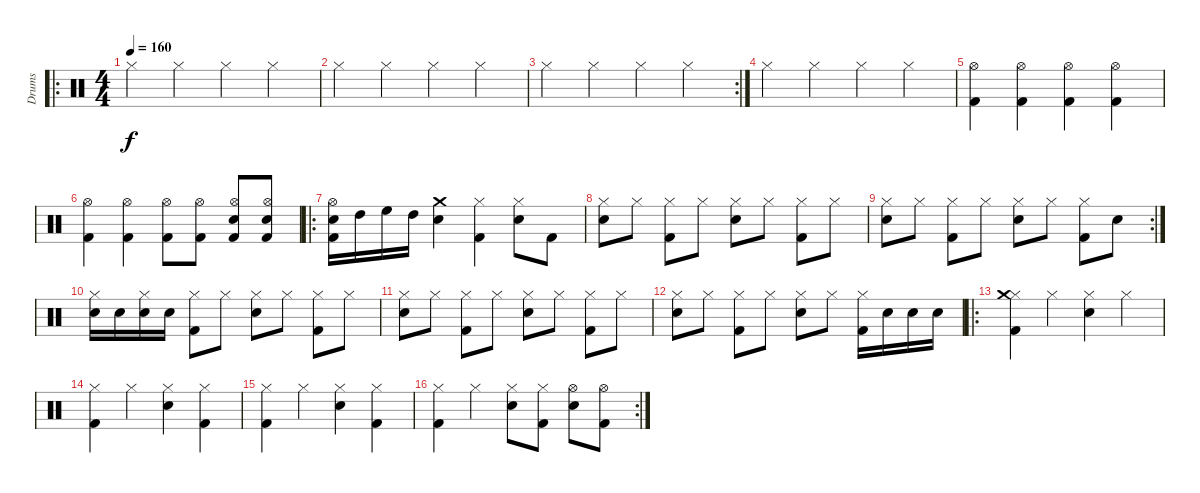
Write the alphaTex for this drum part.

\track ("Drums" "Drums") {instrument percussion}
\staff {score}
\articulation defaults
\ro
\ts (4 4)
\tempo 160
\clef neutral
\ks c "Hi-Hat (closed)".4{dy f} "Hi-Hat (closed)".4 "Hi-Hat (closed)".4 "Hi-Hat (closed)".4
|
"Hi-Hat (closed)".4 "Hi-Hat (closed)".4 "Hi-Hat (closed)".4 "Hi-Hat (closed)".4 |
\rc 2 "Hi-Hat (closed)".4 "Hi-Hat (closed)".4 "Hi-Hat (closed)".4 "Hi-Hat (closed)".4
|
"Hi-Hat (closed)".4 "Hi-Hat (closed)".4 "Hi-Hat (closed)".4 "Hi-Hat (closed)".4 |
("Kick (hit) 2" "Hi-Hat (open)").4 ("Kick (hit) 2" "Hi-Hat (open)").4 ("Kick (hit) 2" "Hi-Hat (open)").4 ("Kick (hit) 2" "Hi-Hat (open)").4 |
("Kick (hit) 2" "Hi-Hat (open)").4 ("Kick (hit) 2" "Hi-Hat (open)").4 ("Kick (hit) 2" "Hi-Hat (open)").8 ("Kick (hit) 2" "Hi-Hat (open)").8 ("Kick (hit) 2" "Hi-Hat (open)" "Electric Snare (hit)").8 ("Kick (hit) 2" "Hi-Hat (open)" "Electric Snare (hit)").8 |
\ro
("Kick (hit) 2" "Hi-Hat (open)" "Electric Snare (hit)").16 "High Tom (hit)".16 "High Floor Tom (hit)".16 "High Tom (hit)".16 ("Electric Snare (hit)" "Crash medium (hit)").4 ("Hi-Hat (closed)" "Kick (hit) 2").4 ("Hi-Hat (closed)" "Electric Snare (hit)").8 "Kick (hit) 2".8 |
("Hi-Hat (closed)" "Electric Snare (hit)").8 "Hi-Hat (closed)".8 ("Hi-Hat (closed)" "Kick (hit) 2").8 "Hi-Hat (closed)".8 ("Hi-Hat (closed)" "Electric Snare (hit)").8 "Hi-Hat (closed)".8 ("Hi-Hat (closed)" "Kick (hit) 2").8 "Hi-Hat (closed)".8 |
\rc 2
("Hi-Hat (closed)" "Electric Snare (hit)").8 "Hi-Hat (closed)".8 ("Hi-Hat (closed)" "Kick (hit) 2").8 "Hi-Hat (closed)".8 ("Hi-Hat (closed)" "Electric Snare (hit)").8 "Hi-Hat (closed)".8 ("Hi-Hat (closed)" "Kick (hit) 2").8 "Electric Snare (hit)".8 |
("Hi-Hat (closed)" "Electric Snare (hit)").16 "Electric Snare (hit)".16 ("Hi-Hat (closed)" "Electric Snare (hit)").16 "Electric Snare (hit)".16 ("Hi-Hat (closed)" "Kick (hit) 2").8 "Hi-Hat (closed)".8 ("Hi-Hat (closed)" "Electric Snare (hit)").8 "Hi-Hat (closed)".8 ("Hi-Hat (closed)" "Kick (hit) 2").8 "Hi-Hat (closed)".8 |
("Hi-Hat (closed)" "Electric Snare (hit)").8 "Hi-Hat (closed)".8 ("Hi-Hat (closed)" "Kick (hit) 2").8 "Hi-Hat (closed)".8 ("Hi-Hat (closed)" "Electric Snare (hit)").8 "Hi-Hat (closed)".8 ("Hi-Hat (closed)" "Kick (hit) 2").8 "Hi-Hat (closed)".8 |
("Hi-Hat (closed)" "Electric Snare (hit)").8 "Hi-Hat (closed)".8 ("Hi-Hat (closed)" "Kick (hit) 2").8 "Hi-Hat (closed)".8 ("Hi-Hat (closed)" "Electric Snare (hit)").8 "Hi-Hat (closed)".8 ("Hi-Hat (closed)" "Kick (hit) 2").16 "Electric Snare (hit)".16 "Electric Snare (hit)".16 "Electric Snare (hit)".16 |
\ro
("Hi-Hat (closed)" "Kick (hit) 2" "Crash medium (hit)").4 "Hi-Hat (closed)".4 ("Hi-Hat (closed)" "Electric Snare (hit)").4 "Hi-Hat (closed)".4 |
("Hi-Hat (closed)" "Kick (hit) 2").4 "Hi-Hat (closed)".4 ("Hi-Hat (closed)" "Electric Snare (hit)").4 ("Hi-Hat (closed)" "Kick (hit) 2").4 |
("Hi-Hat (closed)" "Kick (hit) 2").4 "Hi-Hat (closed)".4 ("Hi-Hat (closed)" "Electric Snare (hit)").4 ("Hi-Hat (closed)" "Kick (hit) 2").4 |
\rc 2
("Hi-Hat (closed)" "Kick (hit) 2").4 "Hi-Hat (closed)".4 ("Hi-Hat (closed)" "Electric Snare (hit)").8 ("Hi-Hat (closed)" "Kick (hit) 2").8 ("Hi-Hat (open)" "Electric Snare (hit)").8 ("Hi-Hat (open)" "Kick (hit) 2").8
